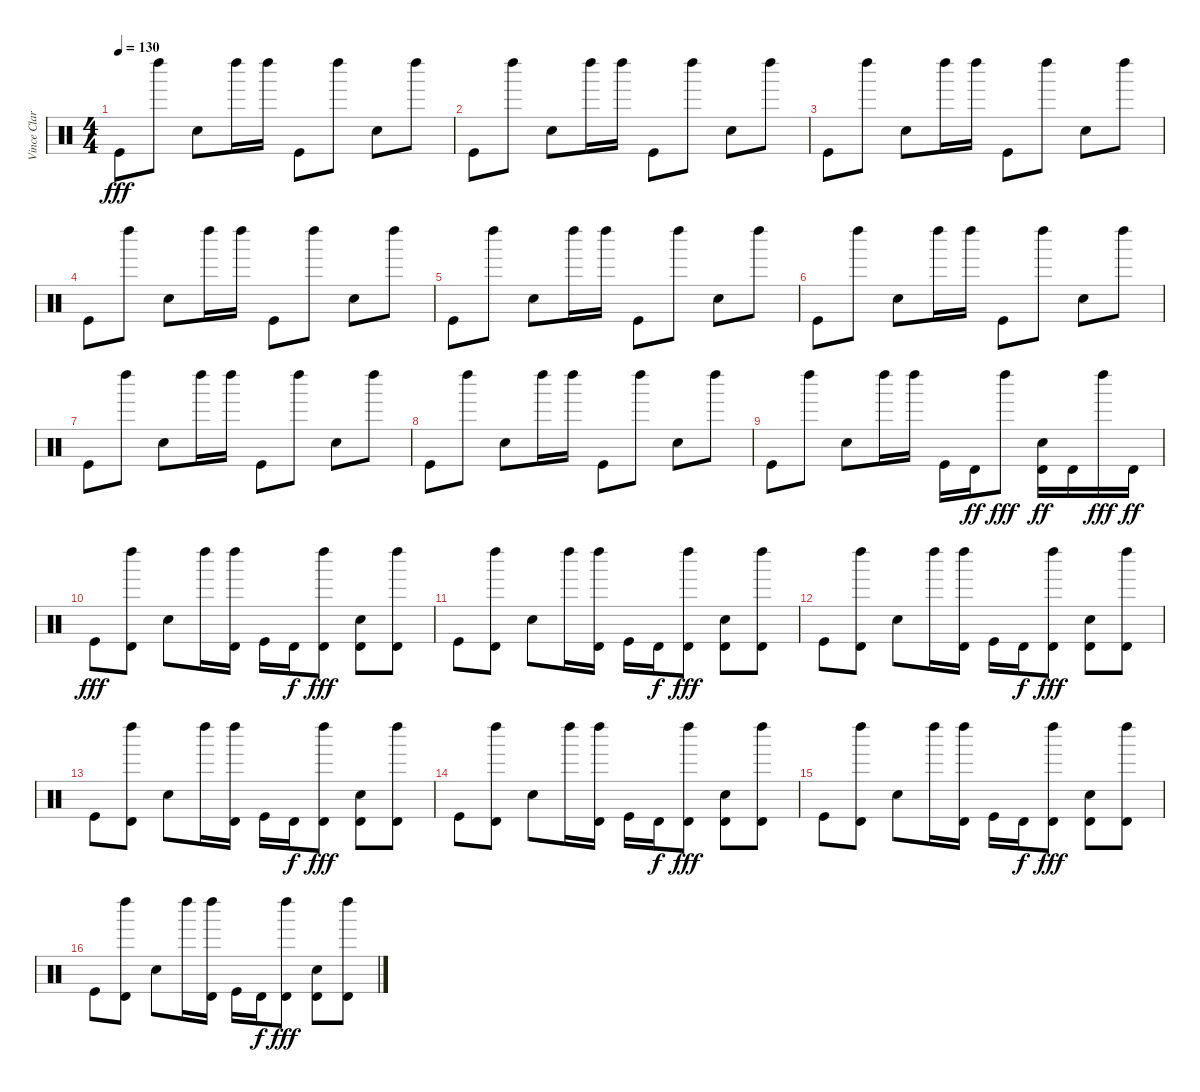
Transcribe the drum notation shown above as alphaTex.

\track ("Vince Clarke" "Vince Clar") {instrument percussion}
\staff {score}
\articulation defaults
\ts (4 4)
\tempo 130
\clef neutral
\ks c "Kick (hit)".8{dy fff} "Left Maraca (hit)".8 "Snare (hit) 2".8 "Left Maraca (hit)".16 "Left Maraca (hit)".16 "Kick (hit)".8 "Left Maraca (hit)".8 "Snare (hit) 2".8 "Left Maraca (hit)".8
|
"Kick (hit)".8 "Left Maraca (hit)".8 "Snare (hit) 2".8 "Left Maraca (hit)".16 "Left Maraca (hit)".16 "Kick (hit)".8 "Left Maraca (hit)".8 "Snare (hit) 2".8 "Left Maraca (hit)".8 |
"Kick (hit)".8 "Left Maraca (hit)".8 "Snare (hit) 2".8 "Left Maraca (hit)".16 "Left Maraca (hit)".16 "Kick (hit)".8 "Left Maraca (hit)".8 "Snare (hit) 2".8 "Left Maraca (hit)".8 |
"Kick (hit)".8 "Left Maraca (hit)".8 "Snare (hit) 2".8 "Left Maraca (hit)".16 "Left Maraca (hit)".16 "Kick (hit)".8 "Left Maraca (hit)".8 "Snare (hit) 2".8 "Left Maraca (hit)".8 |
"Kick (hit)".8 "Left Maraca (hit)".8 "Snare (hit) 2".8 "Left Maraca (hit)".16 "Left Maraca (hit)".16 "Kick (hit)".8 "Left Maraca (hit)".8 "Snare (hit) 2".8 "Left Maraca (hit)".8 |
"Kick (hit)".8 "Left Maraca (hit)".8 "Snare (hit) 2".8 "Left Maraca (hit)".16 "Left Maraca (hit)".16 "Kick (hit)".8 "Left Maraca (hit)".8 "Snare (hit) 2".8 "Left Maraca (hit)".8 |
"Kick (hit)".8 "Left Maraca (hit)".8 "Snare (hit) 2".8 "Left Maraca (hit)".16 "Left Maraca (hit)".16 "Kick (hit)".8 "Left Maraca (hit)".8 "Snare (hit) 2".8 "Left Maraca (hit)".8 |
"Kick (hit)".8 "Left Maraca (hit)".8 "Snare (hit) 2".8 "Left Maraca (hit)".16 "Left Maraca (hit)".16 "Kick (hit)".8 "Left Maraca (hit)".8 "Snare (hit) 2".8 "Left Maraca (hit)".8 |
"Kick (hit)".8 "Left Maraca (hit)".8 "Snare (hit) 2".8 "Left Maraca (hit)".16 "Left Maraca (hit)".16 "Kick (hit)".16 "Timbale high (hit)".16{dy ff} "Left Maraca (hit)".8{dy fff} ("Snare (hit) 2" "Timbale high (hit)").16{dy ff} "Timbale high (hit)".16 "Left Maraca (hit)".16{dy fff} "Timbale high (hit)".16{dy ff} |
"Kick (hit)".8{dy fff} ("Left Maraca (hit)" "Timbale high (hit)").8 "Snare (hit) 2".8 "Left Maraca (hit)".16 ("Left Maraca (hit)" "Timbale high (hit)").16 "Kick (hit)".16 "Timbale high (hit)".16{dy f} ("Left Maraca (hit)" "Timbale high (hit)").8{dy fff} ("Snare (hit) 2" "Timbale high (hit)").8 ("Left Maraca (hit)" "Timbale high (hit)").8 |
"Kick (hit)".8 ("Left Maraca (hit)" "Timbale high (hit)").8 "Snare (hit) 2".8 "Left Maraca (hit)".16 ("Left Maraca (hit)" "Timbale high (hit)").16 "Kick (hit)".16 "Timbale high (hit)".16{dy f} ("Left Maraca (hit)" "Timbale high (hit)").8{dy fff} ("Snare (hit) 2" "Timbale high (hit)").8 ("Left Maraca (hit)" "Timbale high (hit)").8 |
"Kick (hit)".8 ("Left Maraca (hit)" "Timbale high (hit)").8 "Snare (hit) 2".8 "Left Maraca (hit)".16 ("Left Maraca (hit)" "Timbale high (hit)").16 "Kick (hit)".16 "Timbale high (hit)".16{dy f} ("Left Maraca (hit)" "Timbale high (hit)").8{dy fff} ("Snare (hit) 2" "Timbale high (hit)").8 ("Left Maraca (hit)" "Timbale high (hit)").8 |
"Kick (hit)".8 ("Left Maraca (hit)" "Timbale high (hit)").8 "Snare (hit) 2".8 "Left Maraca (hit)".16 ("Left Maraca (hit)" "Timbale high (hit)").16 "Kick (hit)".16 "Timbale high (hit)".16{dy f} ("Left Maraca (hit)" "Timbale high (hit)").8{dy fff} ("Snare (hit) 2" "Timbale high (hit)").8 ("Left Maraca (hit)" "Timbale high (hit)").8 |
"Kick (hit)".8 ("Left Maraca (hit)" "Timbale high (hit)").8 "Snare (hit) 2".8 "Left Maraca (hit)".16 ("Left Maraca (hit)" "Timbale high (hit)").16 "Kick (hit)".16 "Timbale high (hit)".16{dy f} ("Left Maraca (hit)" "Timbale high (hit)").8{dy fff} ("Snare (hit) 2" "Timbale high (hit)").8 ("Left Maraca (hit)" "Timbale high (hit)").8 |
"Kick (hit)".8 ("Left Maraca (hit)" "Timbale high (hit)").8 "Snare (hit) 2".8 "Left Maraca (hit)".16 ("Left Maraca (hit)" "Timbale high (hit)").16 "Kick (hit)".16 "Timbale high (hit)".16{dy f} ("Left Maraca (hit)" "Timbale high (hit)").8{dy fff} ("Snare (hit) 2" "Timbale high (hit)").8 ("Left Maraca (hit)" "Timbale high (hit)").8 |
"Kick (hit)".8 ("Left Maraca (hit)" "Timbale high (hit)").8 "Snare (hit) 2".8 "Left Maraca (hit)".16 ("Left Maraca (hit)" "Timbale high (hit)").16 "Kick (hit)".16 "Timbale high (hit)".16{dy f} ("Left Maraca (hit)" "Timbale high (hit)").8{dy fff} ("Snare (hit) 2" "Timbale high (hit)").8 ("Left Maraca (hit)" "Timbale high (hit)").8
